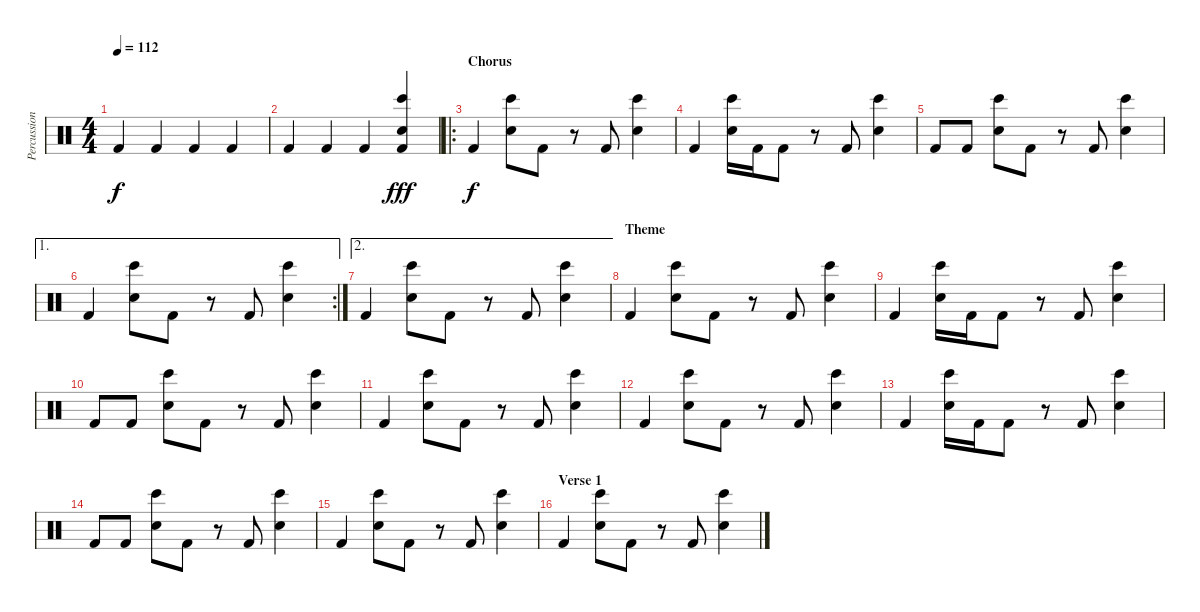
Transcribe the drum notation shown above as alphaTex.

\track ("Percussion" "Percussion") {instrument percussion}
\staff {score}
\articulation defaults
\ts (4 4)
\tempo 112
\clef neutral
\ks c "Kick (hit) 2".4{dy f} "Kick (hit) 2".4 "Kick (hit) 2".4 "Kick (hit) 2".4
|
"Kick (hit) 2".4 "Kick (hit) 2".4 "Kick (hit) 2".4 ("Bongo High (hit)" "Hand Clap (hit)" "Kick (hit) 2").4{dy fff} |
\ro
\section ("" "Chorus")
"Kick (hit) 2".4{dy f} ("Bongo High (hit)" "Hand Clap (hit)").8 "Kick (hit) 2".8 r.8 "Kick (hit) 2".8 ("Bongo High (hit)" "Hand Clap (hit)").4 |
"Kick (hit) 2".4 ("Bongo High (hit)" "Hand Clap (hit)").16 "Kick (hit) 2".16 "Kick (hit) 2".8 r.8 "Kick (hit) 2".8 ("Bongo High (hit)" "Hand Clap (hit)").4 |
"Kick (hit) 2".8 "Kick (hit) 2".8 ("Bongo High (hit)" "Hand Clap (hit)").8 "Kick (hit) 2".8 r.8 "Kick (hit) 2".8 ("Bongo High (hit)" "Hand Clap (hit)").4 |
\ae 1
\rc 2 "Kick (hit) 2".4
("Bongo High (hit)" "Hand Clap (hit)").8 "Kick (hit) 2".8 r.8 "Kick (hit) 2".8 ("Bongo High (hit)" "Hand Clap (hit)").4 |
\ae 2 "Kick (hit) 2".4
("Bongo High (hit)" "Hand Clap (hit)").8 "Kick (hit) 2".8 r.8 "Kick (hit) 2".8 ("Bongo High (hit)" "Hand Clap (hit)").4 |
\section ("" "Theme")
"Kick (hit) 2".4 ("Bongo High (hit)" "Hand Clap (hit)").8 "Kick (hit) 2".8 r.8 "Kick (hit) 2".8 ("Bongo High (hit)" "Hand Clap (hit)").4 |
"Kick (hit) 2".4 ("Bongo High (hit)" "Hand Clap (hit)").16 "Kick (hit) 2".16 "Kick (hit) 2".8 r.8 "Kick (hit) 2".8 ("Bongo High (hit)" "Hand Clap (hit)").4 |
"Kick (hit) 2".8 "Kick (hit) 2".8 ("Bongo High (hit)" "Hand Clap (hit)").8 "Kick (hit) 2".8 r.8 "Kick (hit) 2".8 ("Bongo High (hit)" "Hand Clap (hit)").4 |
"Kick (hit) 2".4 ("Bongo High (hit)" "Hand Clap (hit)").8 "Kick (hit) 2".8 r.8 "Kick (hit) 2".8 ("Bongo High (hit)" "Hand Clap (hit)").4 |
"Kick (hit) 2".4 ("Bongo High (hit)" "Hand Clap (hit)").8 "Kick (hit) 2".8 r.8 "Kick (hit) 2".8 ("Bongo High (hit)" "Hand Clap (hit)").4 |
"Kick (hit) 2".4 ("Bongo High (hit)" "Hand Clap (hit)").16 "Kick (hit) 2".16 "Kick (hit) 2".8 r.8 "Kick (hit) 2".8 ("Bongo High (hit)" "Hand Clap (hit)").4 |
"Kick (hit) 2".8 "Kick (hit) 2".8 ("Bongo High (hit)" "Hand Clap (hit)").8 "Kick (hit) 2".8 r.8 "Kick (hit) 2".8 ("Bongo High (hit)" "Hand Clap (hit)").4 |
"Kick (hit) 2".4 ("Bongo High (hit)" "Hand Clap (hit)").8 "Kick (hit) 2".8 r.8 "Kick (hit) 2".8 ("Bongo High (hit)" "Hand Clap (hit)").4 |
\section ("" "Verse 1")
"Kick (hit) 2".4 ("Bongo High (hit)" "Hand Clap (hit)").8 "Kick (hit) 2".8 r.8 "Kick (hit) 2".8 ("Bongo High (hit)" "Hand Clap (hit)").4
